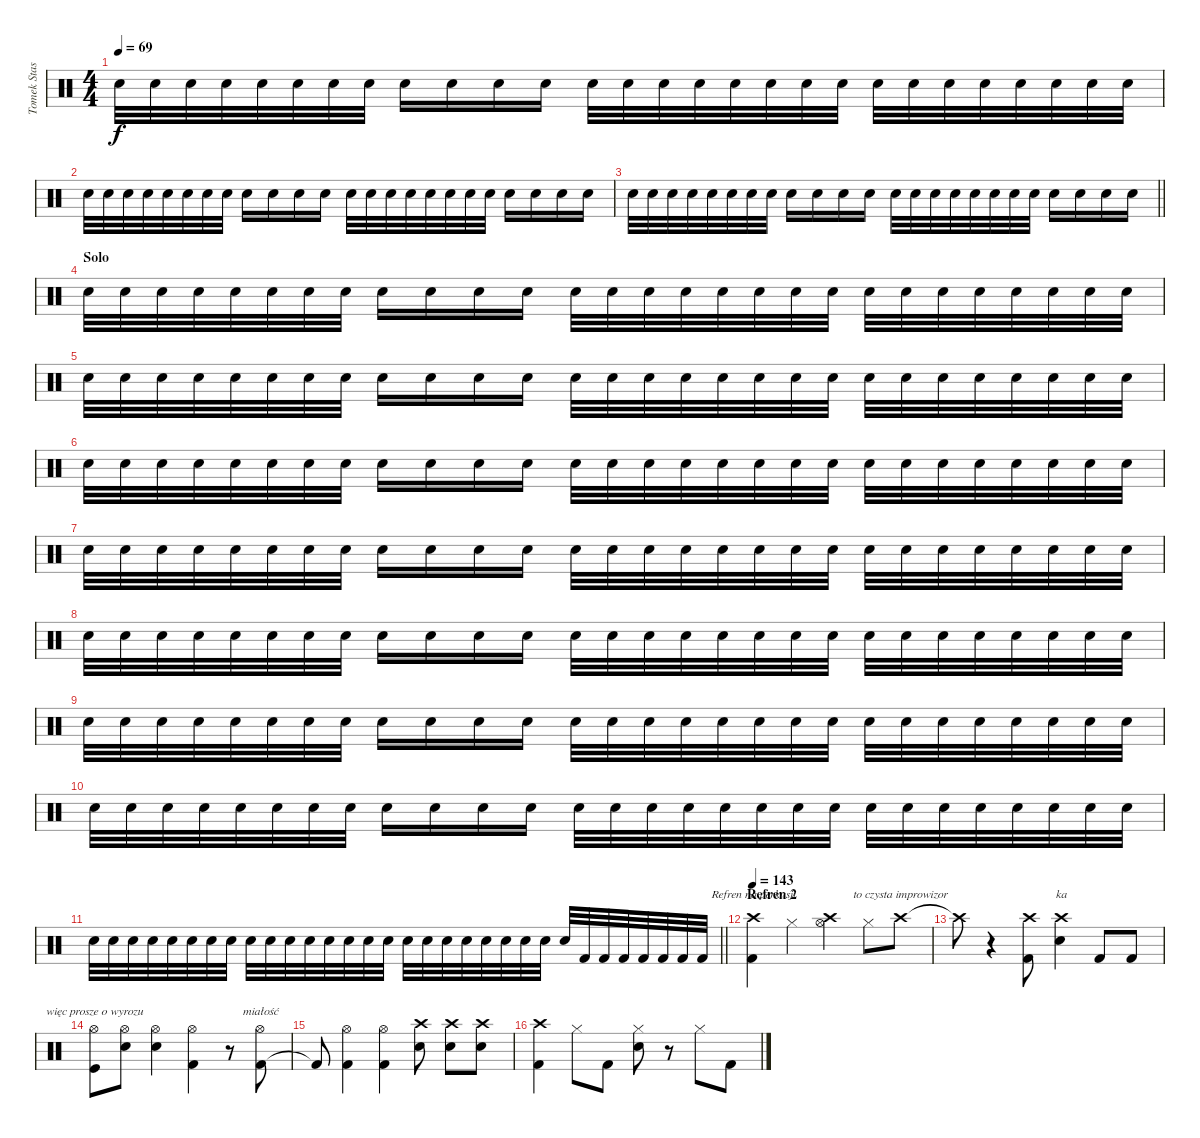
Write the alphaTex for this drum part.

\track ("Tomek Stasiak" "Tomek Stas") {instrument percussion}
\staff {score}
\articulation defaults
\chord ("Refren na perkusji") {firstfret 20}
\chord ("to czysta improwizor") {firstfret 20}
\chord ("ka ") {firstfret 20}
\chord ("więc prosze o wyrozu") {firstfret 20}
\chord ("miałość") {firstfret 20}
\ts (4 4)
\tempo 69
\clef neutral
\ks c "Snare (hit) 2".32{dy f volume 10} "Snare (hit) 2".32{volume 7} "Snare (hit) 2".32 "Snare (hit) 2".32 "Snare (hit) 2".32 "Snare (hit) 2".32 "Snare (hit) 2".32 "Snare (hit) 2".32 "Snare (hit) 2".16 "Snare (hit) 2".16 "Snare (hit) 2".16 "Snare (hit) 2".16 "Snare (hit) 2".32{volume 10} "Snare (hit) 2".32{volume 7} "Snare (hit) 2".32 "Snare (hit) 2".32 "Snare (hit) 2".32 "Snare (hit) 2".32 "Snare (hit) 2".32 "Snare (hit) 2".32 "Snare (hit) 2".32{volume 10} "Snare (hit) 2".32{volume 7} "Snare (hit) 2".32 "Snare (hit) 2".32 "Snare (hit) 2".32 "Snare (hit) 2".32 "Snare (hit) 2".32 "Snare (hit) 2".32
|
"Snare (hit) 2".32{volume 10} "Snare (hit) 2".32{volume 7} "Snare (hit) 2".32 "Snare (hit) 2".32 "Snare (hit) 2".32 "Snare (hit) 2".32 "Snare (hit) 2".32 "Snare (hit) 2".32 "Snare (hit) 2".16 "Snare (hit) 2".16 "Snare (hit) 2".16 "Snare (hit) 2".16 "Snare (hit) 2".32{volume 10} "Snare (hit) 2".32{volume 7} "Snare (hit) 2".32 "Snare (hit) 2".32 "Snare (hit) 2".32 "Snare (hit) 2".32 "Snare (hit) 2".32 "Snare (hit) 2".32 "Snare (hit) 2".16 "Snare (hit) 2".16 "Snare (hit) 2".16 "Snare (hit) 2".16 |
\barLineRight lightlight "Snare (hit) 2".32{volume 10} "Snare (hit) 2".32{volume 7} "Snare (hit) 2".32 "Snare (hit) 2".32 "Snare (hit) 2".32 "Snare (hit) 2".32 "Snare (hit) 2".32 "Snare (hit) 2".32 "Snare (hit) 2".16 "Snare (hit) 2".16 "Snare (hit) 2".16 "Snare (hit) 2".16 "Snare (hit) 2".32{volume 10} "Snare (hit) 2".32{volume 7} "Snare (hit) 2".32 "Snare (hit) 2".32 "Snare (hit) 2".32 "Snare (hit) 2".32 "Snare (hit) 2".32 "Snare (hit) 2".32 "Snare (hit) 2".16 "Snare (hit) 2".16 "Snare (hit) 2".16 "Snare (hit) 2".16
|
\section ("" "Solo")
"Snare (hit) 2".32{volume 10} "Snare (hit) 2".32{volume 7} "Snare (hit) 2".32 "Snare (hit) 2".32 "Snare (hit) 2".32 "Snare (hit) 2".32 "Snare (hit) 2".32 "Snare (hit) 2".32 "Snare (hit) 2".16 "Snare (hit) 2".16 "Snare (hit) 2".16 "Snare (hit) 2".16 "Snare (hit) 2".32{volume 10} "Snare (hit) 2".32{volume 7} "Snare (hit) 2".32 "Snare (hit) 2".32 "Snare (hit) 2".32 "Snare (hit) 2".32 "Snare (hit) 2".32 "Snare (hit) 2".32 "Snare (hit) 2".32{volume 10} "Snare (hit) 2".32{volume 7} "Snare (hit) 2".32 "Snare (hit) 2".32 "Snare (hit) 2".32 "Snare (hit) 2".32 "Snare (hit) 2".32 "Snare (hit) 2".32 |
"Snare (hit) 2".32{volume 10} "Snare (hit) 2".32{volume 7} "Snare (hit) 2".32 "Snare (hit) 2".32 "Snare (hit) 2".32 "Snare (hit) 2".32 "Snare (hit) 2".32 "Snare (hit) 2".32 "Snare (hit) 2".16 "Snare (hit) 2".16 "Snare (hit) 2".16 "Snare (hit) 2".16 "Snare (hit) 2".32{volume 10} "Snare (hit) 2".32{volume 7} "Snare (hit) 2".32 "Snare (hit) 2".32 "Snare (hit) 2".32 "Snare (hit) 2".32 "Snare (hit) 2".32 "Snare (hit) 2".32 "Snare (hit) 2".32{volume 10} "Snare (hit) 2".32{volume 7} "Snare (hit) 2".32 "Snare (hit) 2".32 "Snare (hit) 2".32 "Snare (hit) 2".32 "Snare (hit) 2".32 "Snare (hit) 2".32 |
"Snare (hit) 2".32{volume 10} "Snare (hit) 2".32{volume 7} "Snare (hit) 2".32 "Snare (hit) 2".32 "Snare (hit) 2".32 "Snare (hit) 2".32 "Snare (hit) 2".32 "Snare (hit) 2".32 "Snare (hit) 2".16 "Snare (hit) 2".16 "Snare (hit) 2".16 "Snare (hit) 2".16 "Snare (hit) 2".32{volume 10} "Snare (hit) 2".32{volume 7} "Snare (hit) 2".32 "Snare (hit) 2".32 "Snare (hit) 2".32 "Snare (hit) 2".32 "Snare (hit) 2".32 "Snare (hit) 2".32 "Snare (hit) 2".32{volume 10} "Snare (hit) 2".32{volume 7} "Snare (hit) 2".32 "Snare (hit) 2".32 "Snare (hit) 2".32 "Snare (hit) 2".32 "Snare (hit) 2".32 "Snare (hit) 2".32 |
"Snare (hit) 2".32{volume 10} "Snare (hit) 2".32{volume 7} "Snare (hit) 2".32 "Snare (hit) 2".32 "Snare (hit) 2".32 "Snare (hit) 2".32 "Snare (hit) 2".32 "Snare (hit) 2".32 "Snare (hit) 2".16 "Snare (hit) 2".16 "Snare (hit) 2".16 "Snare (hit) 2".16 "Snare (hit) 2".32{volume 10} "Snare (hit) 2".32{volume 7} "Snare (hit) 2".32 "Snare (hit) 2".32 "Snare (hit) 2".32 "Snare (hit) 2".32 "Snare (hit) 2".32 "Snare (hit) 2".32 "Snare (hit) 2".32{volume 10} "Snare (hit) 2".32{volume 7} "Snare (hit) 2".32 "Snare (hit) 2".32 "Snare (hit) 2".32 "Snare (hit) 2".32 "Snare (hit) 2".32 "Snare (hit) 2".32 |
"Snare (hit) 2".32{volume 10} "Snare (hit) 2".32{volume 7} "Snare (hit) 2".32 "Snare (hit) 2".32 "Snare (hit) 2".32 "Snare (hit) 2".32 "Snare (hit) 2".32 "Snare (hit) 2".32 "Snare (hit) 2".16 "Snare (hit) 2".16 "Snare (hit) 2".16 "Snare (hit) 2".16 "Snare (hit) 2".32{volume 10} "Snare (hit) 2".32{volume 7} "Snare (hit) 2".32 "Snare (hit) 2".32 "Snare (hit) 2".32 "Snare (hit) 2".32 "Snare (hit) 2".32 "Snare (hit) 2".32 "Snare (hit) 2".32{volume 10} "Snare (hit) 2".32{volume 7} "Snare (hit) 2".32 "Snare (hit) 2".32 "Snare (hit) 2".32 "Snare (hit) 2".32 "Snare (hit) 2".32 "Snare (hit) 2".32 |
"Snare (hit) 2".32{volume 10} "Snare (hit) 2".32{volume 7} "Snare (hit) 2".32 "Snare (hit) 2".32 "Snare (hit) 2".32 "Snare (hit) 2".32 "Snare (hit) 2".32 "Snare (hit) 2".32 "Snare (hit) 2".16 "Snare (hit) 2".16 "Snare (hit) 2".16 "Snare (hit) 2".16 "Snare (hit) 2".32{volume 10} "Snare (hit) 2".32{volume 7} "Snare (hit) 2".32 "Snare (hit) 2".32 "Snare (hit) 2".32 "Snare (hit) 2".32 "Snare (hit) 2".32 "Snare (hit) 2".32 "Snare (hit) 2".32{volume 10} "Snare (hit) 2".32{volume 7} "Snare (hit) 2".32 "Snare (hit) 2".32 "Snare (hit) 2".32 "Snare (hit) 2".32 "Snare (hit) 2".32 "Snare (hit) 2".32 |
"Snare (hit) 2".32{volume 10} "Snare (hit) 2".32{volume 7} "Snare (hit) 2".32 "Snare (hit) 2".32 "Snare (hit) 2".32 "Snare (hit) 2".32 "Snare (hit) 2".32 "Snare (hit) 2".32 "Snare (hit) 2".16 "Snare (hit) 2".16 "Snare (hit) 2".16 "Snare (hit) 2".16 "Snare (hit) 2".32{volume 10} "Snare (hit) 2".32{volume 7} "Snare (hit) 2".32 "Snare (hit) 2".32 "Snare (hit) 2".32 "Snare (hit) 2".32 "Snare (hit) 2".32 "Snare (hit) 2".32 "Snare (hit) 2".32{volume 10} "Snare (hit) 2".32{volume 7} "Snare (hit) 2".32 "Snare (hit) 2".32 "Snare (hit) 2".32 "Snare (hit) 2".32 "Snare (hit) 2".32 "Snare (hit) 2".32 |
\barLineRight lightlight "Snare (hit) 2".32{volume 7} "Snare (hit) 2".32{volume 16} "Snare (hit) 2".32 "Snare (hit) 2".32 "Snare (hit) 2".32 "Snare (hit) 2".32 "Snare (hit) 2".32 "Snare (hit) 2".32 "Snare (hit) 2".32 "Snare (hit) 2".32 "Snare (hit) 2".32 "Snare (hit) 2".32 "Snare (hit) 2".32 "Snare (hit) 2".32 "Snare (hit) 2".32 "Snare (hit) 2".32 "Snare (hit) 2".32 "Electric Snare (hit)".32 "Electric Snare (hit)".32 "Electric Snare (hit)".32 "Electric Snare (hit)".32 "Electric Snare (hit)".32 "Electric Snare (hit)".32 "Electric Snare (hit)".32 "Electric Snare (hit)".32 "Kick (hit) 2".32 "Kick (hit) 2".32 "Kick (hit) 2".32 "Kick (hit) 2".32 "Kick (hit) 2".32 "Kick (hit) 2".32 "Kick (hit) 2".32
|
\section ("" "Refren 2")
\tempo 143
("Crash high (hit)" "Kick (hit) 2").4{ch "Refren na perkusji"} "Hi-Hat (closed)".4 ("Crash high (hit)" "Hi-Hat (open)").4 "Hi-Hat (closed)".8 "Crash high (hit)".8{ch "to czysta improwizor"} |
"Crash high (hit)"{t}.8 r.4 ("Kick (hit) 2" "Crash high (hit)").8 ("Snare (hit) 2" "Crash high (hit)").4{ch "ka "} "Kick (hit) 2".8 "Kick (hit) 2".8 |
("Kick (hit)" "Hi-Hat (open)").8{ch "więc prosze o wyrozu"} ("Snare (hit) 2" "Hi-Hat (open)").8 ("Snare (hit) 2" "Hi-Hat (open)").4 ("Kick (hit) 2" "Hi-Hat (open)").4 r.8 ("Kick (hit) 2" "Hi-Hat (open)").8{ch "miałość"} |
"Kick (hit) 2"{t}.8 ("Kick (hit) 2" "Hi-Hat (open)").4 ("Kick (hit) 2" "Hi-Hat (open)").4 ("Crash high (hit)" "Snare (hit) 2").8 ("Crash high (hit)" "Snare (hit) 2").8 ("Crash high (hit)" "Snare (hit) 2").8 |
("Crash high (hit)" "Kick (hit) 2").4 "Hi-Hat (closed)".8 "Kick (hit) 2".8 ("Hi-Hat (closed)" "Snare (hit) 2").8 r.8 "Hi-Hat (closed)".8 "Kick (hit) 2".8
